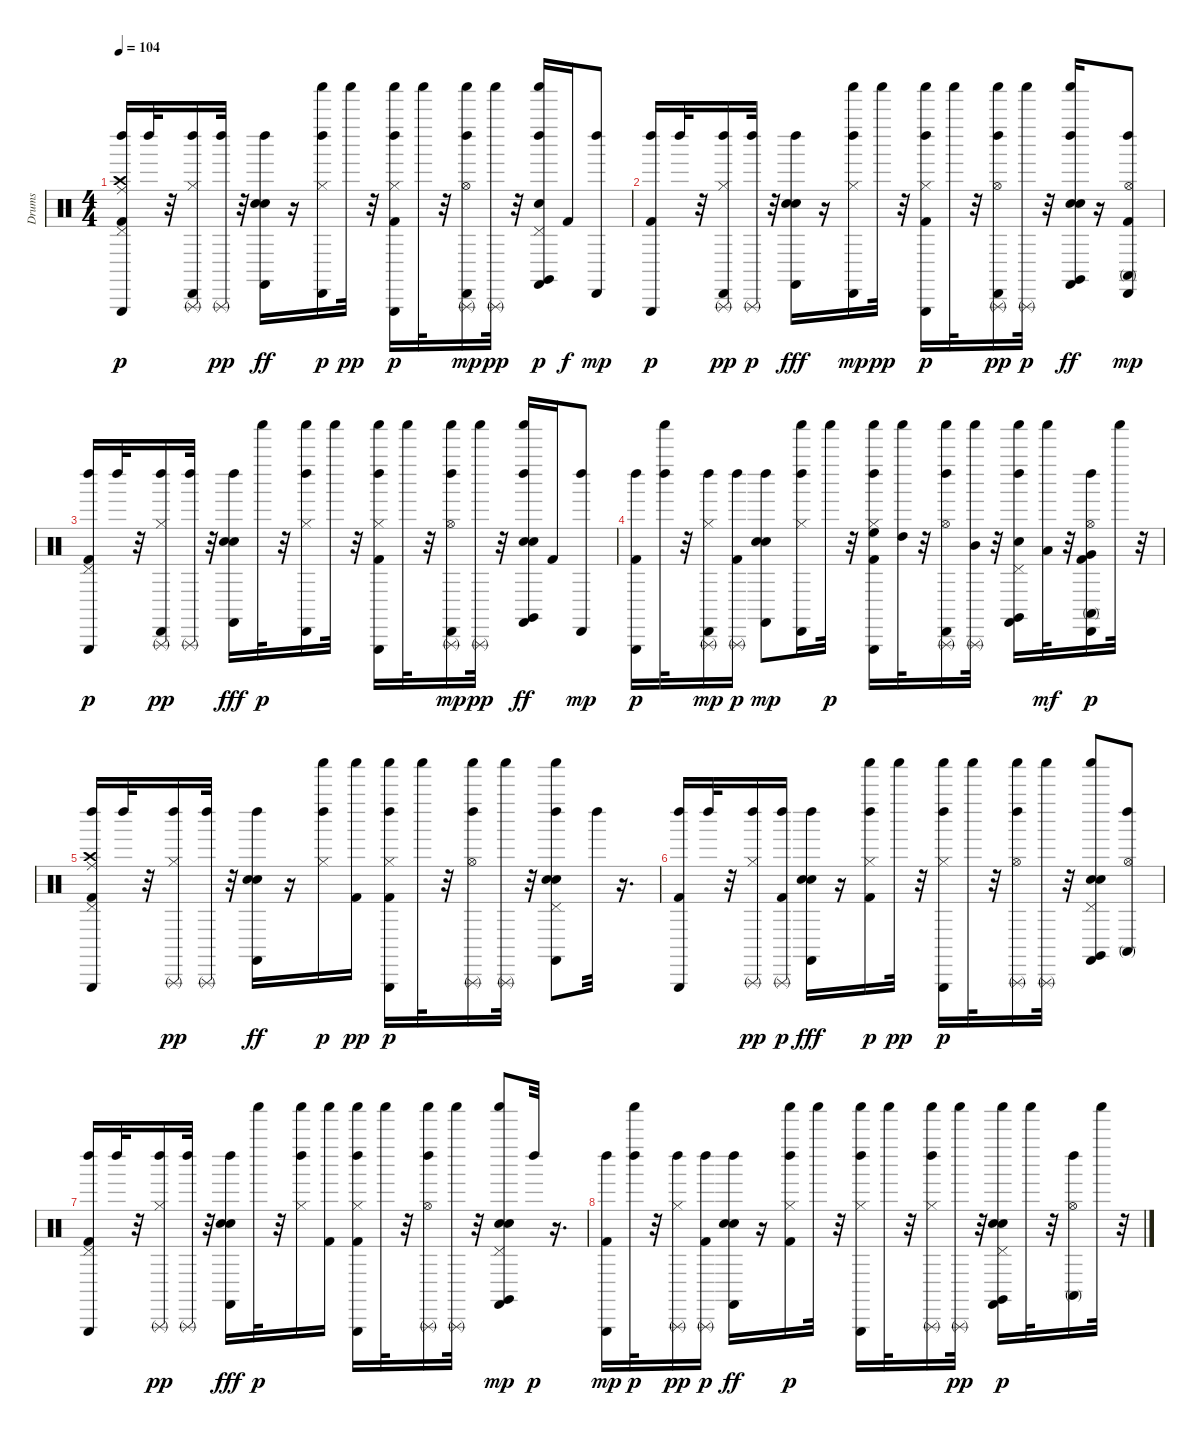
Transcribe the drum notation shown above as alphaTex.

\track ("Drums" "Drums") {instrument percussion}
\staff {score}
\articulation defaults
\ts (4 4)
\tempo 104
\clef neutral
\ks c
("Triangle (hit)" "Left Maraca (hit)" "Kick (hit) 2" "Ride (middle)" "Crash high (hit)" "Pedal Hi-Hat (hit)").16{dy p} "Left Maraca (hit)".32 r.32 ("Hi-Hat (closed)" "Triangle (rnute)" "Cabasa (hit)" "Left Maraca (hit)").16 ("Left Maraca (hit)" "Triangle (rnute)").32{dy pp} r.32 ("Hand Clap (hit)" "Left Maraca (hit)" "Electric Snare (hit)" "Castanets (hit)").16{dy ff} r.16 ("Hi-Hat (closed)" "Cabasa (hit)" "Left Maraca (hit)" "Shaker (hit)").16{dy p} "Shaker (hit)".32{dy pp} r.32 ("Shaker (hit)" "Triangle (hit)" "Kick (hit) 2" "Left Maraca (hit)" "Hi-Hat (closed)").16{dy p} "Shaker (hit)".32 r.32 ("Shaker (hit)" "Hi-Hat (open)" "Left Maraca (hit)" "Triangle (rnute)" "Cabasa (hit)").16{dy mp} ("Shaker (hit)" "Triangle (rnute)").32{dy pp} r.32 ("Hand Clap (hit)" "Castanets (hit)" "Pedal Hi-Hat (hit)" "Shaker (hit)" "Claves (hit)" "Left Maraca (hit)").16{dy p} "Kick (hit) 2".16{dy f} ("Left Maraca (hit)" "Cabasa (hit)").8{dy mp} |
("Triangle (hit)" "Left Maraca (hit)" "Kick (hit) 2").16{dy p} "Left Maraca (hit)".32 r.32 ("Cabasa (hit)" "Hi-Hat (closed)" "Left Maraca (hit)" "Triangle (rnute)").16{dy pp} ("Triangle (rnute)" "Left Maraca (hit)").32{dy p} r.32 ("Electric Snare (hit)" "Left Maraca (hit)" "Castanets (hit)" "Hand Clap (hit)").16{dy fff} r.16 ("Hi-Hat (closed)" "Shaker (hit)" "Left Maraca (hit)" "Cabasa (hit)").16{dy mp} "Shaker (hit)".32{dy pp} r.32 ("Hi-Hat (closed)" "Left Maraca (hit)" "Triangle (hit)" "Kick (hit) 2" "Shaker (hit)").16{dy p} "Shaker (hit)".32 r.32 ("Hi-Hat (open)" "Left Maraca (hit)" "Shaker (hit)" "Cabasa (hit)" "Triangle (rnute)").16{dy pp} ("Triangle (rnute)" "Shaker (hit)").32{dy p} r.32 ("Castanets (hit)" "Electric Snare (hit)" "Left Maraca (hit)" "Shaker (hit)" "Hand Clap (hit)" "Claves (hit)").16{dy ff} r.16 ("Hi-Hat (open)" "Left Maraca (hit)" "Conga high (mute)" "Kick (hit) 2" "Cabasa (hit)").8{dy mp} |
("Kick (hit) 2" "Triangle (hit)" "Pedal Hi-Hat (hit)" "Left Maraca (hit)").16{dy p} "Left Maraca (hit)".32 r.32 ("Cabasa (hit)" "Hi-Hat (closed)" "Left Maraca (hit)" "Triangle (rnute)").16{dy pp} ("Triangle (rnute)" "Left Maraca (hit)").32 r.32 ("Castanets (hit)" "Left Maraca (hit)" "Electric Snare (hit)" "Hand Clap (hit)").16{dy fff} "Shaker (hit)".32{dy p} r.32 ("Left Maraca (hit)" "Cabasa (hit)" "Shaker (hit)" "Hi-Hat (closed)").16 "Shaker (hit)".32 r.32 ("Kick (hit) 2" "Hi-Hat (closed)" "Triangle (hit)" "Left Maraca (hit)" "Shaker (hit)").16 "Shaker (hit)".32 r.32 ("Triangle (rnute)" "Left Maraca (hit)" "Shaker (hit)" "Hi-Hat (open)" "Cabasa (hit)").16{dy mp} ("Shaker (hit)" "Triangle (rnute)").32{dy pp} r.32 ("Shaker (hit)" "Left Maraca (hit)" "Hand Clap (hit)" "Claves (hit)" "Electric Snare (hit)" "Castanets (hit)").16{dy ff} "Kick (hit) 2".16 ("Left Maraca (hit)" "Cabasa (hit)").8{dy mp} |
("Kick (hit) 2" "Triangle (hit)" "Left Maraca (hit)").16{dy p} ("Shaker (hit)" "Left Maraca (hit)").32 r.32 ("Hi-Hat (closed)" "Left Maraca (hit)" "Triangle (rnute)" "Cabasa (hit)").16{dy mp} ("Triangle (rnute)" "Kick (hit) 2" "Left Maraca (hit)").16{dy p} ("Castanets (hit)" "Hand Clap (hit)" "Left Maraca (hit)" "Electric Snare (hit)").8{dy mp} ("Shaker (hit)" "Hi-Hat (closed)" "Left Maraca (hit)" "Cabasa (hit)").16 "Shaker (hit)".32{dy p} r.32 ("Kick (hit) 2" "High Floor Tom (hit)" "Triangle (hit)" "Hi-Hat (closed)" "Left Maraca (hit)" "Shaker (hit)").16 ("Shaker (hit)" "High Tom (hit)").32 r.32 ("Cabasa (hit)" "Triangle (rnute)" "Shaker (hit)" "Left Maraca (hit)" "Hi-Hat (open)").16 ("Triangle (rnute)" "Mid Tom (hit)" "Shaker (hit)").32 r.32 ("Left Maraca (hit)" "Castanets (hit)" "Claves (hit)" "Pedal Hi-Hat (hit)" "Electric Snare (hit)" "Shaker (hit)").16 ("Shaker (hit)" "Low Tom (hit)").32{dy mf} r.32 ("Conga high (mute)" "Left Maraca (hit)" "Cabasa (hit)" "Kick (hit) 2" "Very Low Tom (hit)" "Hi-Hat (open)").16{dy p} "Shaker (hit)".32 r.32 |
("Left Maraca (hit)" "Kick (hit) 2" "Triangle (hit)" "Crash high (hit)" "Ride (middle)" "Pedal Hi-Hat (hit)").16 "Left Maraca (hit)".32 r.32 ("Hi-Hat (closed)" "Left Maraca (hit)" "Triangle (rnute)").16{dy pp} ("Left Maraca (hit)" "Triangle (rnute)").32 r.32 ("Left Maraca (hit)" "Hand Clap (hit)" "Electric Snare (hit)" "Castanets (hit)").16{dy ff} r.16 ("Hi-Hat (closed)" "Shaker (hit)" "Left Maraca (hit)").16{dy p} ("Kick (hit) 2" "Shaker (hit)").16{dy pp} ("Hi-Hat (closed)" "Left Maraca (hit)" "Triangle (hit)" "Shaker (hit)" "Kick (hit) 2").16{dy p} "Shaker (hit)".32 r.32 ("Triangle (rnute)" "Left Maraca (hit)" "Shaker (hit)" "Hi-Hat (open)").16 ("Triangle (rnute)" "Shaker (hit)").32 r.32 ("Pedal Hi-Hat (hit)" "Electric Snare (hit)" "Hand Clap (hit)" "Castanets (hit)" "Left Maraca (hit)" "Shaker (hit)").8 "Left Maraca (hit)".32 r.16{d} |
("Triangle (hit)" "Left Maraca (hit)" "Kick (hit) 2").16 "Left Maraca (hit)".32 r.32 ("Hi-Hat (closed)" "Left Maraca (hit)" "Triangle (rnute)").16{dy pp} ("Triangle (rnute)" "Left Maraca (hit)" "Kick (hit) 2").16{dy p} ("Castanets (hit)" "Electric Snare (hit)" "Left Maraca (hit)" "Hand Clap (hit)").16{dy fff} r.16 ("Left Maraca (hit)" "Hi-Hat (closed)" "Kick (hit) 2" "Shaker (hit)").16{dy p} "Shaker (hit)".32{dy pp} r.32 ("Left Maraca (hit)" "Triangle (hit)" "Shaker (hit)" "Hi-Hat (closed)").16{dy p} "Shaker (hit)".32 r.32 ("Triangle (rnute)" "Left Maraca (hit)" "Shaker (hit)" "Hi-Hat (open)").16 ("Triangle (rnute)" "Shaker (hit)").32 r.32 ("Castanets (hit)" "Shaker (hit)" "Electric Snare (hit)" "Claves (hit)" "Hand Clap (hit)" "Pedal Hi-Hat (hit)").8 ("Left Maraca (hit)" "Hi-Hat (open)" "Conga high (mute)").8 |
("Kick (hit) 2" "Triangle (hit)" "Left Maraca (hit)" "Pedal Hi-Hat (hit)").16 "Left Maraca (hit)".32 r.32 ("Left Maraca (hit)" "Hi-Hat (closed)" "Triangle (rnute)").16{dy pp} ("Left Maraca (hit)" "Triangle (rnute)").32 r.32 ("Left Maraca (hit)" "Electric Snare (hit)" "Castanets (hit)" "Hand Clap (hit)").16{dy fff} "Shaker (hit)".32{dy p} r.32 ("Shaker (hit)" "Left Maraca (hit)" "Hi-Hat (closed)").16 ("Shaker (hit)" "Kick (hit) 2").16 ("Shaker (hit)" "Hi-Hat (closed)" "Triangle (hit)" "Left Maraca (hit)" "Kick (hit) 2").16 "Shaker (hit)".32 r.32 ("Shaker (hit)" "Hi-Hat (open)" "Triangle (rnute)" "Left Maraca (hit)").16 ("Triangle (rnute)" "Shaker (hit)").32 r.32 ("Pedal Hi-Hat (hit)" "Shaker (hit)" "Castanets (hit)" "Claves (hit)" "Hand Clap (hit)" "Electric Snare (hit)").8{dy mp} "Left Maraca (hit)".32{dy p} r.16{d} |
("Left Maraca (hit)" "Triangle (hit)" "Kick (hit) 2").16{dy mp} ("Shaker (hit)" "Left Maraca (hit)").32{dy p} r.32 ("Left Maraca (hit)" "Hi-Hat (closed)" "Triangle (rnute)").16{dy pp} ("Triangle (rnute)" "Left Maraca (hit)" "Kick (hit) 2").16{dy p} ("Left Maraca (hit)" "Electric Snare (hit)" "Hand Clap (hit)" "Castanets (hit)").16{dy ff} r.16 ("Left Maraca (hit)" "Hi-Hat (closed)" "Shaker (hit)" "Kick (hit) 2").16{dy p} "Shaker (hit)".32 r.32 ("Left Maraca (hit)" "Shaker (hit)" "Triangle (hit)" "Hi-Hat (closed)").16 "Shaker (hit)".32 r.32 ("Triangle (rnute)" "Shaker (hit)" "Left Maraca (hit)" "Hi-Hat (closed)").16 ("Shaker (hit)" "Triangle (rnute)").32{dy pp} r.32 ("Hand Clap (hit)" "Castanets (hit)" "Claves (hit)" "Shaker (hit)" "Electric Snare (hit)" "Pedal Hi-Hat (hit)").16{dy p} "Shaker (hit)".32 r.32 ("Hi-Hat (open)" "Left Maraca (hit)" "Conga high (mute)").16 "Shaker (hit)".32 r.32
